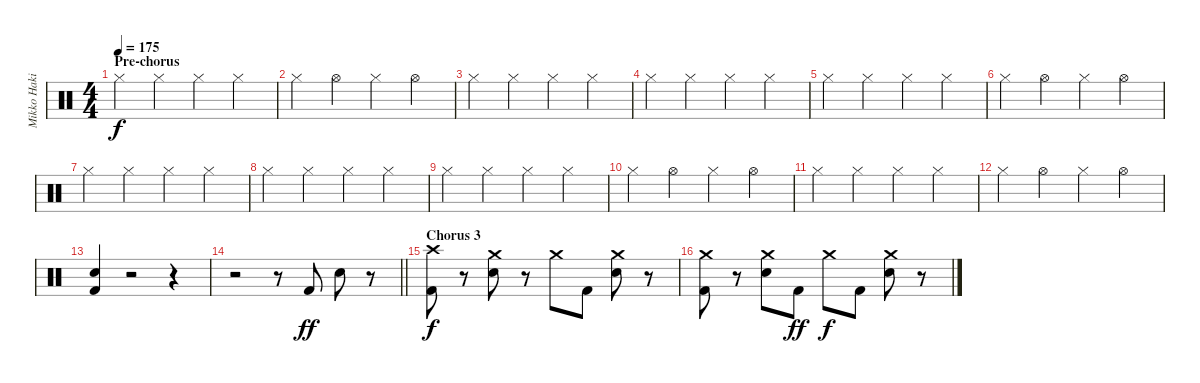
\track ("Mikko Hakila - Drums" "Mikko Haki") {instrument percussion}
\staff {score}
\articulation defaults
\ts (4 4)
\section ("" "Pre-chorus")
\tempo 175
\clef neutral
\ks c "Hi-Hat (closed)".4{dy f} "Hi-Hat (closed)".4 "Hi-Hat (closed)".4 "Hi-Hat (closed)".4
|
"Hi-Hat (closed)".4 "Hi-Hat (open)".4 "Hi-Hat (closed)".4 "Hi-Hat (open)".4 |
"Hi-Hat (closed)".4 "Hi-Hat (closed)".4 "Hi-Hat (closed)".4 "Hi-Hat (closed)".4 |
"Hi-Hat (closed)".4 "Hi-Hat (closed)".4 "Hi-Hat (closed)".4 "Hi-Hat (closed)".4 |
"Hi-Hat (closed)".4 "Hi-Hat (closed)".4 "Hi-Hat (closed)".4 "Hi-Hat (closed)".4 |
"Hi-Hat (closed)".4 "Hi-Hat (open)".4 "Hi-Hat (closed)".4 "Hi-Hat (open)".4 |
"Hi-Hat (closed)".4 "Hi-Hat (closed)".4 "Hi-Hat (closed)".4 "Hi-Hat (closed)".4 |
"Hi-Hat (closed)".4 "Hi-Hat (closed)".4 "Hi-Hat (closed)".4 "Hi-Hat (closed)".4 |
"Hi-Hat (closed)".4 "Hi-Hat (closed)".4 "Hi-Hat (closed)".4 "Hi-Hat (closed)".4 |
"Hi-Hat (closed)".4 "Hi-Hat (open)".4 "Hi-Hat (closed)".4 "Hi-Hat (open)".4 |
"Hi-Hat (closed)".4 "Hi-Hat (closed)".4 "Hi-Hat (closed)".4 "Hi-Hat (closed)".4 |
"Hi-Hat (closed)".4 "Hi-Hat (open)".4 "Hi-Hat (closed)".4 "Hi-Hat (open)".4 |
("Electric Snare (hit)" "Kick (hit) 2").4 r.2 r.4 |
\barLineRight lightlight
r.2 r.8 "Kick (hit) 2".8{dy ff} "Electric Snare (hit)".8 r.8 |
\section ("" "Chorus 3")
("Crash high (hit)" "Kick (hit) 2").8{dy f} r.8 ("Crash medium (hit)" "Electric Snare (hit)").8 r.8 "Crash medium (hit)".8 "Kick (hit) 2".8 ("Crash medium (hit)" "Electric Snare (hit)").8 r.8 |
("Crash medium (hit)" "Kick (hit) 2").8 r.8 ("Crash medium (hit)" "Electric Snare (hit)").8 "Kick (hit) 2".8{dy ff} "Crash medium (hit)".8{dy f} "Kick (hit) 2".8 ("Crash medium (hit)" "Electric Snare (hit)").8 r.8
